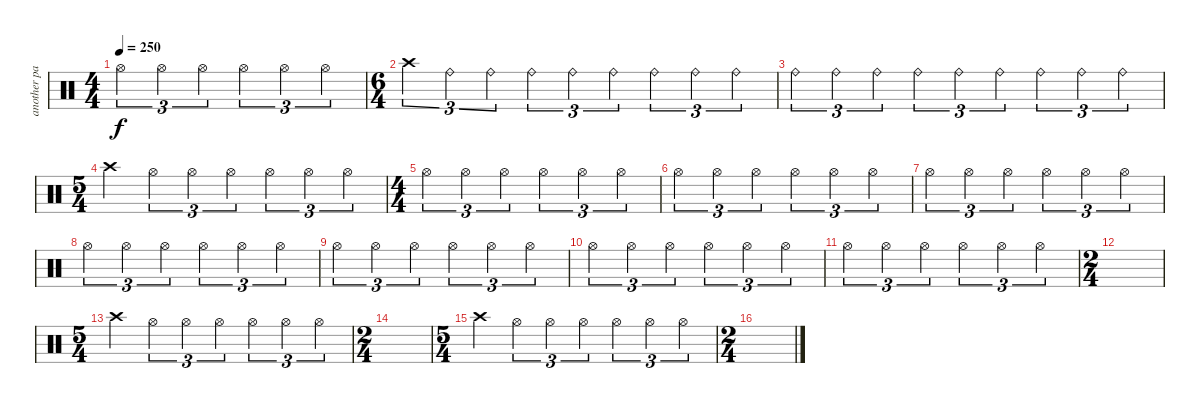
\track ("another part of metti" "another pa") {instrument percussion}
\staff {score}
\articulation defaults
\ts (4 4)
\tempo 250
\clef neutral
\ks c "Hi-Hat (open)".4{tu (3 2) dy f} "Hi-Hat (open)".4{tu (3 2)} "Hi-Hat (open)".4{tu (3 2)} "Hi-Hat (open)".4{tu (3 2)} "Hi-Hat (open)".4{tu (3 2)} "Hi-Hat (open)".4{tu (3 2)}
|
\ts (6 4)
"Crash high (hit)".4{tu (3 2)} "Ride (bell)".4{tu (3 2)} "Ride (bell)".4{tu (3 2)} "Ride (bell)".4{tu (3 2)} "Ride (bell)".4{tu (3 2)} "Ride (bell)".4{tu (3 2)} "Ride (bell)".4{tu (3 2)} "Ride (bell)".4{tu (3 2)} "Ride (bell)".4{tu (3 2)} |
"Ride (bell)".4{tu (3 2)} "Ride (bell)".4{tu (3 2)} "Ride (bell)".4{tu (3 2)} "Ride (bell)".4{tu (3 2)} "Ride (bell)".4{tu (3 2)} "Ride (bell)".4{tu (3 2)} "Ride (bell)".4{tu (3 2)} "Ride (bell)".4{tu (3 2)} "Ride (bell)".4{tu (3 2)} |
\ts (5 4)
"Crash high (hit)".4 "Hi-Hat (open)".4{tu (3 2)} "Hi-Hat (open)".4{tu (3 2)} "Hi-Hat (open)".4{tu (3 2)} "Hi-Hat (open)".4{tu (3 2)} "Hi-Hat (open)".4{tu (3 2)} "Hi-Hat (open)".4{tu (3 2)} |
\ts (4 4)
"Hi-Hat (open)".4{tu (3 2)} "Hi-Hat (open)".4{tu (3 2)} "Hi-Hat (open)".4{tu (3 2)} "Hi-Hat (open)".4{tu (3 2)} "Hi-Hat (open)".4{tu (3 2)} "Hi-Hat (open)".4{tu (3 2)} |
"Hi-Hat (open)".4{tu (3 2)} "Hi-Hat (open)".4{tu (3 2)} "Hi-Hat (open)".4{tu (3 2)} "Hi-Hat (open)".4{tu (3 2)} "Hi-Hat (open)".4{tu (3 2)} "Hi-Hat (open)".4{tu (3 2)} |
"Hi-Hat (open)".4{tu (3 2)} "Hi-Hat (open)".4{tu (3 2)} "Hi-Hat (open)".4{tu (3 2)} "Hi-Hat (open)".4{tu (3 2)} "Hi-Hat (open)".4{tu (3 2)} "Hi-Hat (open)".4{tu (3 2)} |
"Hi-Hat (open)".4{tu (3 2)} "Hi-Hat (open)".4{tu (3 2)} "Hi-Hat (open)".4{tu (3 2)} "Hi-Hat (open)".4{tu (3 2)} "Hi-Hat (open)".4{tu (3 2)} "Hi-Hat (open)".4{tu (3 2)} |
"Hi-Hat (open)".4{tu (3 2)} "Hi-Hat (open)".4{tu (3 2)} "Hi-Hat (open)".4{tu (3 2)} "Hi-Hat (open)".4{tu (3 2)} "Hi-Hat (open)".4{tu (3 2)} "Hi-Hat (open)".4{tu (3 2)} |
"Hi-Hat (open)".4{tu (3 2)} "Hi-Hat (open)".4{tu (3 2)} "Hi-Hat (open)".4{tu (3 2)} "Hi-Hat (open)".4{tu (3 2)} "Hi-Hat (open)".4{tu (3 2)} "Hi-Hat (open)".4{tu (3 2)} |
"Hi-Hat (open)".4{tu (3 2)} "Hi-Hat (open)".4{tu (3 2)} "Hi-Hat (open)".4{tu (3 2)} "Hi-Hat (open)".4{tu (3 2)} "Hi-Hat (open)".4{tu (3 2)} "Hi-Hat (open)".4{tu (3 2)} |
\ts (2 4)
|
\ts (5 4)
"Crash high (hit)".4 "Hi-Hat (open)".4{tu (3 2)} "Hi-Hat (open)".4{tu (3 2)} "Hi-Hat (open)".4{tu (3 2)} "Hi-Hat (open)".4{tu (3 2)} "Hi-Hat (open)".4{tu (3 2)} "Hi-Hat (open)".4{tu (3 2)} |
\ts (2 4)
|
\ts (5 4)
"Crash high (hit)".4 "Hi-Hat (open)".4{tu (3 2)} "Hi-Hat (open)".4{tu (3 2)} "Hi-Hat (open)".4{tu (3 2)} "Hi-Hat (open)".4{tu (3 2)} "Hi-Hat (open)".4{tu (3 2)} "Hi-Hat (open)".4{tu (3 2)} |
\ts (2 4)
